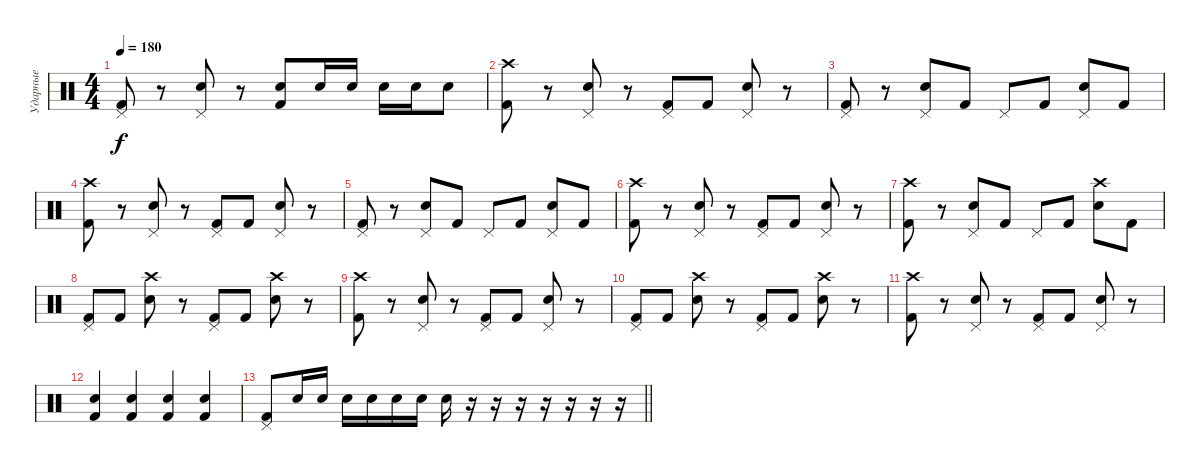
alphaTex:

\track ("Ударные" "Ударные") {instrument percussion}
\staff {score}
\articulation defaults
\ts (4 4)
\tempo 180
\clef neutral
\ks c
("Pedal Hi-Hat (hit)" "Kick (hit) 2").8{dy f} r.8 ("Pedal Hi-Hat (hit)" "Electric Snare (hit)").8 r.8 ("Electric Snare (hit)" "Kick (hit) 2").8 "Electric Snare (hit)".16 "Electric Snare (hit)".16 "Electric Snare (hit)".16 "Electric Snare (hit)".16 "Electric Snare (hit)".8 |
("Crash high (hit)" "Kick (hit) 2").8 r.8 ("Pedal Hi-Hat (hit)" "Electric Snare (hit)").8 r.8 ("Pedal Hi-Hat (hit)" "Kick (hit) 2").8 "Kick (hit) 2".8 ("Pedal Hi-Hat (hit)" "Electric Snare (hit)").8 r.8 |
("Pedal Hi-Hat (hit)" "Kick (hit) 2").8 r.8 ("Pedal Hi-Hat (hit)" "Electric Snare (hit)").8 "Kick (hit) 2".8 "Pedal Hi-Hat (hit)".8 "Kick (hit) 2".8 ("Pedal Hi-Hat (hit)" "Electric Snare (hit)").8 "Kick (hit) 2".8 |
("Crash high (hit)" "Kick (hit) 2").8 r.8 ("Pedal Hi-Hat (hit)" "Electric Snare (hit)").8 r.8 ("Pedal Hi-Hat (hit)" "Kick (hit) 2").8 "Kick (hit) 2".8 ("Pedal Hi-Hat (hit)" "Electric Snare (hit)").8 r.8 |
("Pedal Hi-Hat (hit)" "Kick (hit) 2").8 r.8 ("Pedal Hi-Hat (hit)" "Electric Snare (hit)").8 "Kick (hit) 2".8 "Pedal Hi-Hat (hit)".8 "Kick (hit) 2".8 ("Pedal Hi-Hat (hit)" "Electric Snare (hit)").8 "Kick (hit) 2".8 |
("Crash high (hit)" "Kick (hit) 2").8 r.8 ("Pedal Hi-Hat (hit)" "Electric Snare (hit)").8 r.8 ("Pedal Hi-Hat (hit)" "Kick (hit) 2").8 "Kick (hit) 2".8 ("Pedal Hi-Hat (hit)" "Electric Snare (hit)").8 r.8 |
("Crash high (hit)" "Kick (hit) 2").8 r.8 ("Pedal Hi-Hat (hit)" "Electric Snare (hit)").8 "Kick (hit) 2".8 "Pedal Hi-Hat (hit)".8 "Kick (hit) 2".8 ("Crash high (hit)" "Electric Snare (hit)").8 "Kick (hit) 2".8 |
("Pedal Hi-Hat (hit)" "Kick (hit) 2").8 "Kick (hit) 2".8 ("Crash high (hit)" "Electric Snare (hit)").8 r.8 ("Pedal Hi-Hat (hit)" "Kick (hit) 2").8 "Kick (hit) 2".8 ("Crash high (hit)" "Electric Snare (hit)").8 r.8 |
("Crash high (hit)" "Kick (hit) 2").8 r.8 ("Pedal Hi-Hat (hit)" "Electric Snare (hit)").8 r.8 ("Pedal Hi-Hat (hit)" "Kick (hit) 2").8 "Kick (hit) 2".8 ("Pedal Hi-Hat (hit)" "Electric Snare (hit)").8 r.8 |
("Pedal Hi-Hat (hit)" "Kick (hit) 2").8 "Kick (hit) 2".8 ("Crash high (hit)" "Electric Snare (hit)").8 r.8 ("Pedal Hi-Hat (hit)" "Kick (hit) 2").8 "Kick (hit) 2".8 ("Crash high (hit)" "Electric Snare (hit)").8 r.8 |
("Crash high (hit)" "Kick (hit) 2").8 r.8 ("Pedal Hi-Hat (hit)" "Electric Snare (hit)").8 r.8 ("Pedal Hi-Hat (hit)" "Kick (hit) 2").8 "Kick (hit) 2".8 ("Pedal Hi-Hat (hit)" "Electric Snare (hit)").8 r.8 |
("Electric Snare (hit)" "Kick (hit) 2").4 ("Electric Snare (hit)" "Kick (hit) 2").4 ("Electric Snare (hit)" "Kick (hit) 2").4 ("Electric Snare (hit)" "Kick (hit) 2").4 |
\barLineRight lightlight
("Pedal Hi-Hat (hit)" "Kick (hit) 2").8 "Electric Snare (hit)".16 "Electric Snare (hit)".16 "Electric Snare (hit)".16 "Electric Snare (hit)".16 "Electric Snare (hit)".16 "Electric Snare (hit)".16 "Electric Snare (hit)".16 r.16 r.16 r.16 r.16 r.16 r.16 r.16
